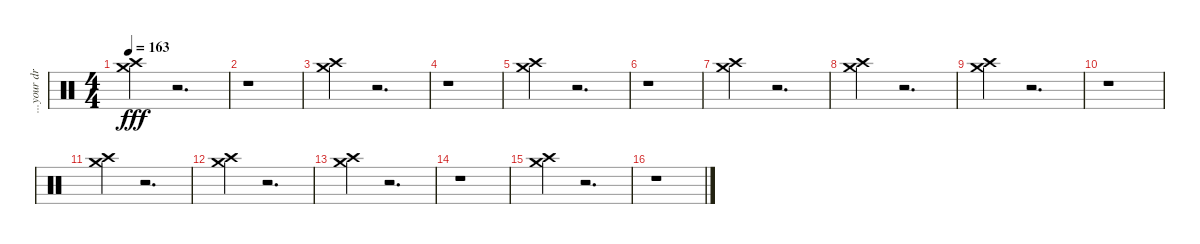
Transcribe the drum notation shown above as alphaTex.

\track ("...your drums (read: cymbals)..." "...your dr") {instrument percussion}
\staff {score}
\articulation defaults
\ts (4 4)
\tempo 163
\clef neutral
\ks c
("Crash high (hit)" "Crash medium (hit)").4{dy fff} r.2{d} |
r.1 |
("Crash high (hit)" "Crash medium (hit)").4 r.2{d} |
r.1 |
("Crash high (hit)" "Crash medium (hit)").4 r.2{d} |
r.1 |
("Crash high (hit)" "Crash medium (hit)").4 r.2{d} |
("Crash high (hit)" "Crash medium (hit)").4 r.2{d} |
("Crash high (hit)" "Crash medium (hit)").4 r.2{d} |
r.1 |
("Crash high (hit)" "Crash medium (hit)").4 r.2{d} |
("Crash high (hit)" "Crash medium (hit)").4 r.2{d} |
("Crash high (hit)" "Crash medium (hit)").4 r.2{d} |
r.1 |
("Crash high (hit)" "Crash medium (hit)").4 r.2{d} |
r.1
